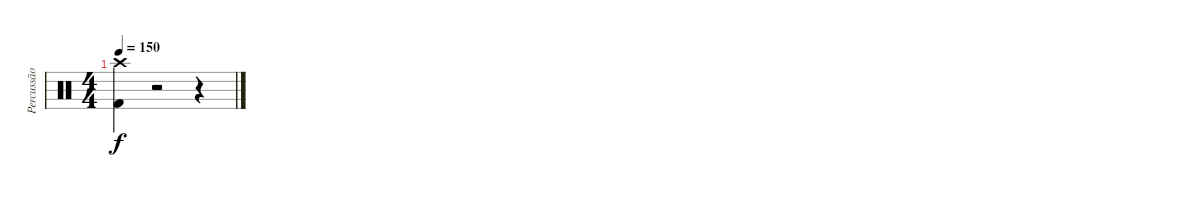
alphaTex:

\track ("Percussão" "Percussão") {instrument percussion}
\staff {score}
\articulation defaults
\ts (4 4)
\tempo 150
\clef neutral
\ks c
("Crash high (hit)" "Kick (hit) 2").4{dy f} r.2 r.4
